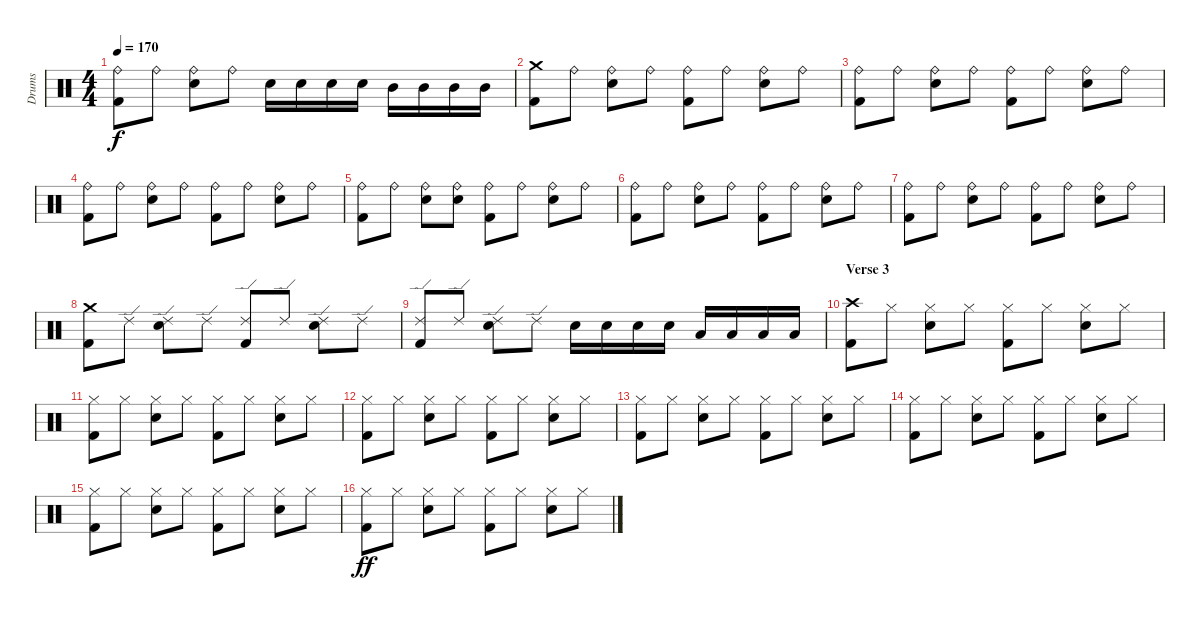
\track ("Drums" "Drums") {instrument percussion}
\staff {score}
\articulation defaults
\ts (4 4)
\tempo 170
\clef neutral
\ks c
("Ride (bell)" "Kick (hit) 2").8{dy f} "Ride (bell)".8 ("Ride (bell)" "Electric Snare (hit)").8 "Ride (bell)".8 "Electric Snare (hit)".16 "Electric Snare (hit)".16 "Electric Snare (hit)".16 "Electric Snare (hit)".16 "Mid Tom (hit)".16 "Mid Tom (hit)".16 "Mid Tom (hit)".16 "Mid Tom (hit)".16 |
("Crash medium (hit)" "Kick (hit) 2").8 "Ride (bell)".8 ("Ride (bell)" "Electric Snare (hit)").8 "Ride (bell)".8 ("Ride (bell)" "Kick (hit) 2").8 "Ride (bell)".8 ("Ride (bell)" "Electric Snare (hit)").8 "Ride (bell)".8 |
("Ride (bell)" "Kick (hit) 2").8 "Ride (bell)".8 ("Ride (bell)" "Electric Snare (hit)").8 "Ride (bell)".8 ("Ride (bell)" "Kick (hit) 2").8 "Ride (bell)".8 ("Ride (bell)" "Electric Snare (hit)").8 "Ride (bell)".8 |
("Ride (bell)" "Kick (hit) 2").8 "Ride (bell)".8 ("Ride (bell)" "Electric Snare (hit)").8 "Ride (bell)".8 ("Ride (bell)" "Kick (hit) 2").8 "Ride (bell)".8 ("Ride (bell)" "Electric Snare (hit)").8 "Ride (bell)".8 |
("Ride (bell)" "Kick (hit) 2").8 "Ride (bell)".8 ("Ride (bell)" "Electric Snare (hit)").8 ("Ride (bell)" "Electric Snare (hit)").8 ("Ride (bell)" "Kick (hit) 2").8 "Ride (bell)".8 ("Ride (bell)" "Electric Snare (hit)").8 "Ride (bell)".8 |
("Ride (bell)" "Kick (hit) 2").8 "Ride (bell)".8 ("Ride (bell)" "Electric Snare (hit)").8 "Ride (bell)".8 ("Ride (bell)" "Kick (hit) 2").8 "Ride (bell)".8 ("Ride (bell)" "Electric Snare (hit)").8 "Ride (bell)".8 |
("Ride (bell)" "Kick (hit) 2").8 "Ride (bell)".8 ("Ride (bell)" "Electric Snare (hit)").8 "Ride (bell)".8 ("Ride (bell)" "Kick (hit) 2").8 "Ride (bell)".8 ("Ride (bell)" "Electric Snare (hit)").8 "Ride (bell)".8 |
("Crash medium (hit)" "Kick (hit) 2").8 "Ride (edge) 2".8 ("Ride (edge) 2" "Electric Snare (hit)").8 "Ride (edge) 2".8 ("Ride (edge) 2" "Kick (hit) 2").8 "Ride (edge) 2".8 ("Ride (edge) 2" "Electric Snare (hit)").8 "Ride (edge) 2".8 |
("Ride (edge) 2" "Kick (hit) 2").8 "Ride (edge) 2".8 ("Ride (edge) 2" "Electric Snare (hit)").8 "Ride (edge) 2".8 "Electric Snare (hit)".16 "Electric Snare (hit)".16 "Electric Snare (hit)".16 "Electric Snare (hit)".16 "Low Tom (hit)".16 "Low Tom (hit)".16 "Low Tom (hit)".16 "Low Tom (hit)".16 |
\section ("" "Verse 3")
("Crash high (hit)" "Kick (hit) 2").8 "Hi-Hat (closed)".8 ("Hi-Hat (closed)" "Electric Snare (hit)").8 "Hi-Hat (closed)".8 ("Hi-Hat (closed)" "Kick (hit) 2").8 "Hi-Hat (closed)".8 ("Hi-Hat (closed)" "Electric Snare (hit)").8 "Hi-Hat (closed)".8 |
("Hi-Hat (closed)" "Kick (hit) 2").8 "Hi-Hat (closed)".8 ("Hi-Hat (closed)" "Electric Snare (hit)").8 "Hi-Hat (closed)".8 ("Hi-Hat (closed)" "Kick (hit) 2").8 "Hi-Hat (closed)".8 ("Hi-Hat (closed)" "Electric Snare (hit)").8 "Hi-Hat (closed)".8 |
("Hi-Hat (closed)" "Kick (hit) 2").8 "Hi-Hat (closed)".8 ("Hi-Hat (closed)" "Electric Snare (hit)").8 "Hi-Hat (closed)".8 ("Hi-Hat (closed)" "Kick (hit) 2").8 "Hi-Hat (closed)".8 ("Hi-Hat (closed)" "Electric Snare (hit)").8 "Hi-Hat (closed)".8 |
("Hi-Hat (closed)" "Kick (hit) 2").8 "Hi-Hat (closed)".8 ("Hi-Hat (closed)" "Electric Snare (hit)").8 "Hi-Hat (closed)".8 ("Hi-Hat (closed)" "Kick (hit) 2").8 "Hi-Hat (closed)".8 ("Hi-Hat (closed)" "Electric Snare (hit)").8 "Hi-Hat (closed)".8 |
("Hi-Hat (closed)" "Kick (hit) 2").8 "Hi-Hat (closed)".8 ("Hi-Hat (closed)" "Electric Snare (hit)").8 "Hi-Hat (closed)".8 ("Hi-Hat (closed)" "Kick (hit) 2").8 "Hi-Hat (closed)".8 ("Hi-Hat (closed)" "Electric Snare (hit)").8 "Hi-Hat (closed)".8 |
("Hi-Hat (closed)" "Kick (hit) 2").8 "Hi-Hat (closed)".8 ("Hi-Hat (closed)" "Electric Snare (hit)").8 "Hi-Hat (closed)".8 ("Hi-Hat (closed)" "Kick (hit) 2").8 "Hi-Hat (closed)".8 ("Hi-Hat (closed)" "Electric Snare (hit)").8 "Hi-Hat (closed)".8 |
("Hi-Hat (closed)" "Kick (hit) 2").8{dy ff} "Hi-Hat (closed)".8 ("Hi-Hat (closed)" "Electric Snare (hit)").8 "Hi-Hat (closed)".8 ("Hi-Hat (closed)" "Kick (hit) 2").8 "Hi-Hat (closed)".8 ("Hi-Hat (closed)" "Electric Snare (hit)").8 "Hi-Hat (closed)".8
